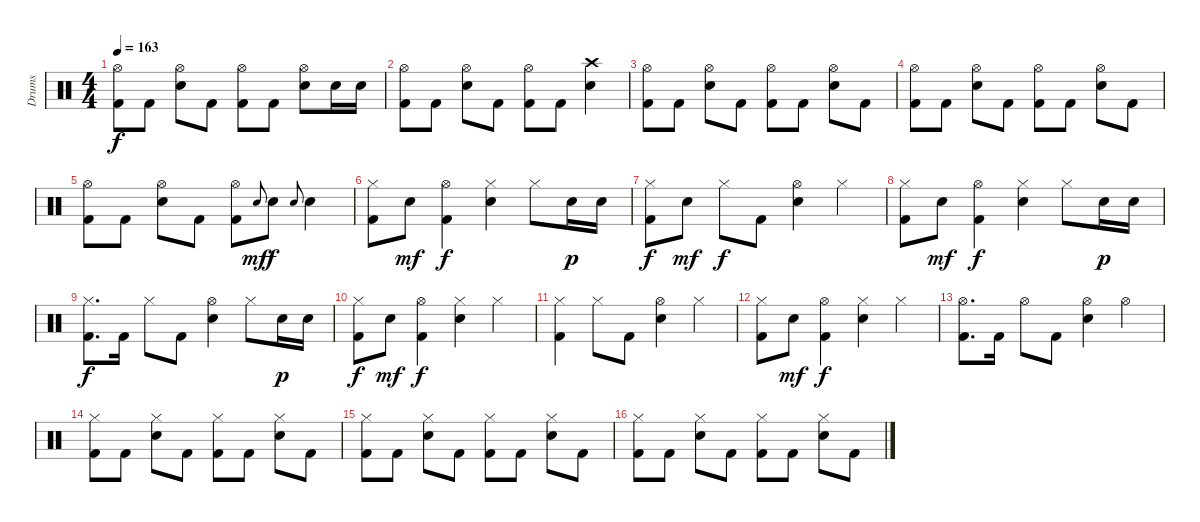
\track ("Drums" "Drums") {instrument percussion}
\staff {score}
\articulation defaults
\ts (4 4)
\tempo 163
\clef neutral
\ks c
("Hi-Hat (open)" "Kick (hit) 2").8{dy f} "Kick (hit) 2".8 ("Hi-Hat (open)" "Electric Snare (hit)").8 "Kick (hit) 2".8 ("Hi-Hat (open)" "Kick (hit) 2").8 "Kick (hit) 2".8 ("Hi-Hat (open)" "Electric Snare (hit)").8 "Electric Snare (hit)".16 "Electric Snare (hit)".16 |
("Hi-Hat (open)" "Kick (hit) 2").8 "Kick (hit) 2".8 ("Hi-Hat (open)" "Electric Snare (hit)").8 "Kick (hit) 2".8 ("Hi-Hat (open)" "Kick (hit) 2").8 "Kick (hit) 2".8 ("Crash high (hit)" "Electric Snare (hit)").4 |
("Hi-Hat (open)" "Kick (hit) 2").8 "Kick (hit) 2".8 ("Hi-Hat (open)" "Electric Snare (hit)").8 "Kick (hit) 2".8 ("Hi-Hat (open)" "Kick (hit) 2").8 "Kick (hit) 2".8 ("Hi-Hat (open)" "Electric Snare (hit)").8 "Kick (hit) 2".8 |
("Hi-Hat (open)" "Kick (hit) 2").8 "Kick (hit) 2".8 ("Hi-Hat (open)" "Electric Snare (hit)").8 "Kick (hit) 2".8 ("Hi-Hat (open)" "Kick (hit) 2").8 "Kick (hit) 2".8 ("Hi-Hat (open)" "Electric Snare (hit)").8 "Kick (hit) 2".8 |
("Hi-Hat (open)" "Kick (hit) 2").8 "Kick (hit) 2".8 ("Hi-Hat (open)" "Electric Snare (hit)").8 "Kick (hit) 2".8 ("Hi-Hat (open)" "Kick (hit) 2").8 "Electric Snare (hit)".8{gr onbeat dy mf} "Electric Snare (hit)".8{dy f} "Electric Snare (hit)".8{gr onbeat} "Electric Snare (hit)".4 |
("Hi-Hat (closed)" "Kick (hit) 2").8 "Electric Snare (hit)".8{dy mf} ("Hi-Hat (open)" "Kick (hit) 2").4{dy f} ("Hi-Hat (closed)" "Electric Snare (hit)").4 "Hi-Hat (closed)".8 "Electric Snare (hit)".16{dy p} "Electric Snare (hit)".16 |
("Hi-Hat (closed)" "Kick (hit) 2").8{dy f} "Electric Snare (hit)".8{dy mf} "Hi-Hat (closed)".8{dy f} "Kick (hit) 2".8 ("Hi-Hat (open)" "Electric Snare (hit)").4 "Hi-Hat (closed)".4 |
("Hi-Hat (closed)" "Kick (hit) 2").8 "Electric Snare (hit)".8{dy mf} ("Hi-Hat (open)" "Kick (hit) 2").4{dy f} ("Hi-Hat (closed)" "Electric Snare (hit)").4 "Hi-Hat (closed)".8 "Electric Snare (hit)".16{dy p} "Electric Snare (hit)".16 |
("Hi-Hat (closed)" "Kick (hit) 2").8{d dy f} "Kick (hit) 2".16 "Hi-Hat (closed)".8 "Kick (hit) 2".8 ("Hi-Hat (open)" "Electric Snare (hit)").4 "Hi-Hat (closed)".8 "Electric Snare (hit)".16{dy p} "Electric Snare (hit)".16 |
("Hi-Hat (closed)" "Kick (hit) 2").8{dy f} "Electric Snare (hit)".8{dy mf} ("Hi-Hat (open)" "Kick (hit) 2").4{dy f} ("Hi-Hat (closed)" "Electric Snare (hit)").4 "Hi-Hat (closed)".4 |
("Hi-Hat (closed)" "Kick (hit) 2").4 "Hi-Hat (closed)".8 "Kick (hit) 2".8 ("Hi-Hat (open)" "Electric Snare (hit)").4 "Hi-Hat (closed)".4 |
("Hi-Hat (closed)" "Kick (hit) 2").8 "Electric Snare (hit)".8{dy mf} ("Hi-Hat (open)" "Kick (hit) 2").4{dy f} ("Hi-Hat (closed)" "Electric Snare (hit)").4 "Hi-Hat (closed)".4 |
("Hi-Hat (open)" "Kick (hit) 2").8{d} "Kick (hit) 2".16 "Hi-Hat (open)".8 "Kick (hit) 2".8 ("Hi-Hat (open)" "Electric Snare (hit)").4 "Hi-Hat (open)".4 |
("Hi-Hat (closed)" "Kick (hit) 2").8 "Kick (hit) 2".8 ("Hi-Hat (closed)" "Electric Snare (hit)").8 "Kick (hit) 2".8 ("Hi-Hat (closed)" "Kick (hit) 2").8 "Kick (hit) 2".8 ("Hi-Hat (closed)" "Electric Snare (hit)").8 "Kick (hit) 2".8 |
("Hi-Hat (closed)" "Kick (hit) 2").8 "Kick (hit) 2".8 ("Hi-Hat (closed)" "Electric Snare (hit)").8 "Kick (hit) 2".8 ("Hi-Hat (closed)" "Kick (hit) 2").8 "Kick (hit) 2".8 ("Hi-Hat (closed)" "Electric Snare (hit)").8 "Kick (hit) 2".8 |
("Hi-Hat (closed)" "Kick (hit) 2").8 "Kick (hit) 2".8 ("Hi-Hat (closed)" "Electric Snare (hit)").8 "Kick (hit) 2".8 ("Hi-Hat (closed)" "Kick (hit) 2").8 "Kick (hit) 2".8 ("Hi-Hat (closed)" "Electric Snare (hit)").8 "Kick (hit) 2".8
